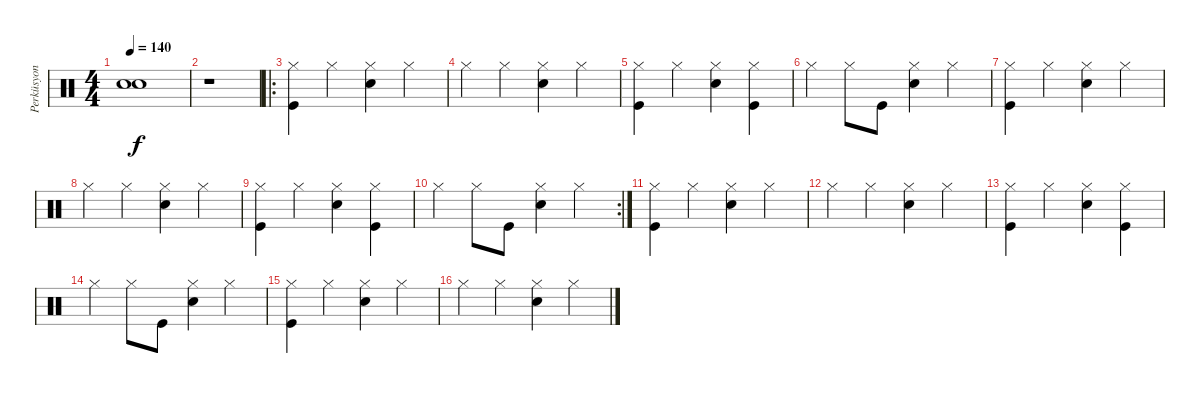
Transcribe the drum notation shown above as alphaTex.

\track ("Perküsyon" "Perküsyon") {instrument percussion}
\staff {score}
\articulation defaults
\ts (4 4)
\tempo 140
\clef neutral
\ks c
("Snare (hit)"{t} "Snare (hit)"{t}).1{dy f} |
r.1 |
\ro
("Hi-Hat (closed)" "Kick (hit)").4 "Hi-Hat (closed)".4 ("Hi-Hat (closed)" "Snare (hit) 2").4 "Hi-Hat (closed)".4 |
"Hi-Hat (closed)".4 "Hi-Hat (closed)".4 ("Hi-Hat (closed)" "Snare (hit) 2").4 "Hi-Hat (closed)".4 |
("Hi-Hat (closed)" "Kick (hit)").4 "Hi-Hat (closed)".4 ("Hi-Hat (closed)" "Snare (hit) 2").4 ("Hi-Hat (closed)" "Kick (hit)").4 |
"Hi-Hat (closed)".4 "Hi-Hat (closed)".8 "Kick (hit)".8 ("Hi-Hat (closed)" "Snare (hit) 2").4 "Hi-Hat (closed)".4 |
("Hi-Hat (closed)" "Kick (hit)").4 "Hi-Hat (closed)".4 ("Hi-Hat (closed)" "Snare (hit) 2").4 "Hi-Hat (closed)".4 |
"Hi-Hat (closed)".4 "Hi-Hat (closed)".4 ("Hi-Hat (closed)" "Snare (hit) 2").4 "Hi-Hat (closed)".4 |
("Hi-Hat (closed)" "Kick (hit)").4 "Hi-Hat (closed)".4 ("Hi-Hat (closed)" "Snare (hit) 2").4 ("Hi-Hat (closed)" "Kick (hit)").4 |
\rc 2 "Hi-Hat (closed)".4 "Hi-Hat (closed)".8 "Kick (hit)".8
("Hi-Hat (closed)" "Snare (hit) 2").4 "Hi-Hat (closed)".4 |
("Hi-Hat (closed)" "Kick (hit)").4 "Hi-Hat (closed)".4 ("Hi-Hat (closed)" "Snare (hit) 2").4 "Hi-Hat (closed)".4 |
"Hi-Hat (closed)".4 "Hi-Hat (closed)".4 ("Hi-Hat (closed)" "Snare (hit) 2").4 "Hi-Hat (closed)".4 |
("Hi-Hat (closed)" "Kick (hit)").4 "Hi-Hat (closed)".4 ("Hi-Hat (closed)" "Snare (hit) 2").4 ("Hi-Hat (closed)" "Kick (hit)").4 |
"Hi-Hat (closed)".4 "Hi-Hat (closed)".8 "Kick (hit)".8 ("Hi-Hat (closed)" "Snare (hit) 2").4 "Hi-Hat (closed)".4 |
("Hi-Hat (closed)" "Kick (hit)").4 "Hi-Hat (closed)".4 ("Hi-Hat (closed)" "Snare (hit) 2").4 "Hi-Hat (closed)".4 |
"Hi-Hat (closed)".4 "Hi-Hat (closed)".4 ("Hi-Hat (closed)" "Snare (hit) 2").4 "Hi-Hat (closed)".4
